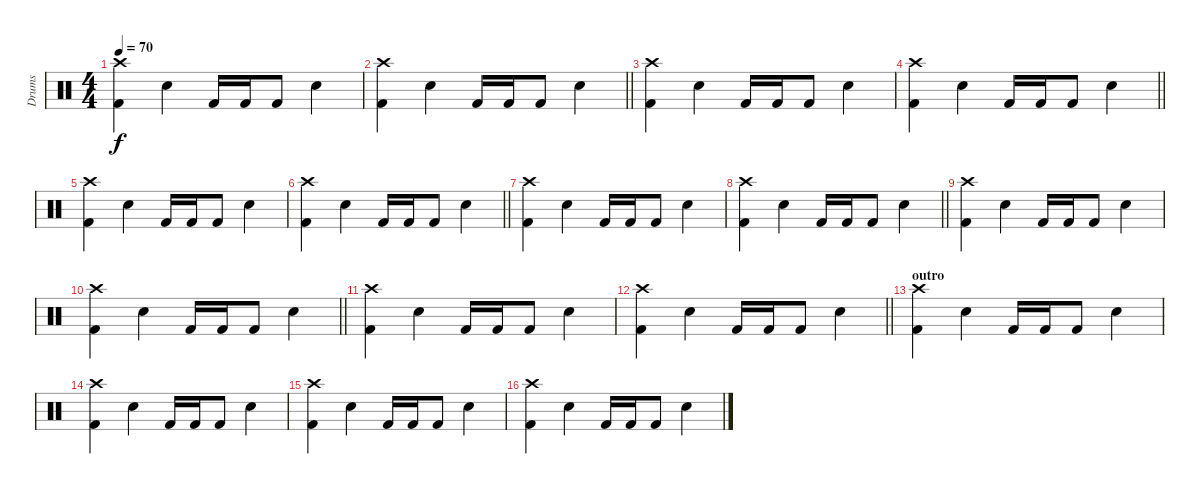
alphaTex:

\track ("Drums" "Drums") {instrument percussion}
\staff {score}
\articulation defaults
\ts (4 4)
\tempo 70
\clef neutral
\ks c
("Kick (hit) 2" "Crash high (hit)").4{dy f} "Electric Snare (hit)".4 "Kick (hit) 2".16 "Kick (hit) 2".16 "Kick (hit) 2".8 "Electric Snare (hit)".4 |
\barLineRight lightlight
("Kick (hit) 2" "Crash high (hit)").4 "Electric Snare (hit)".4 "Kick (hit) 2".16 "Kick (hit) 2".16 "Kick (hit) 2".8 "Electric Snare (hit)".4 |
("Kick (hit) 2" "Crash high (hit)").4 "Electric Snare (hit)".4 "Kick (hit) 2".16 "Kick (hit) 2".16 "Kick (hit) 2".8 "Electric Snare (hit)".4 |
\barLineRight lightlight
("Kick (hit) 2" "Crash high (hit)").4 "Electric Snare (hit)".4 "Kick (hit) 2".16 "Kick (hit) 2".16 "Kick (hit) 2".8 "Electric Snare (hit)".4 |
("Kick (hit) 2" "Crash high (hit)").4 "Electric Snare (hit)".4 "Kick (hit) 2".16 "Kick (hit) 2".16 "Kick (hit) 2".8 "Electric Snare (hit)".4 |
\barLineRight lightlight
("Kick (hit) 2" "Crash high (hit)").4 "Electric Snare (hit)".4 "Kick (hit) 2".16 "Kick (hit) 2".16 "Kick (hit) 2".8 "Electric Snare (hit)".4 |
("Kick (hit) 2" "Crash high (hit)").4 "Electric Snare (hit)".4 "Kick (hit) 2".16 "Kick (hit) 2".16 "Kick (hit) 2".8 "Electric Snare (hit)".4 |
\barLineRight lightlight
("Kick (hit) 2" "Crash high (hit)").4 "Electric Snare (hit)".4 "Kick (hit) 2".16 "Kick (hit) 2".16 "Kick (hit) 2".8 "Electric Snare (hit)".4 |
("Kick (hit) 2" "Crash high (hit)").4 "Electric Snare (hit)".4 "Kick (hit) 2".16 "Kick (hit) 2".16 "Kick (hit) 2".8 "Electric Snare (hit)".4 |
\barLineRight lightlight
("Kick (hit) 2" "Crash high (hit)").4 "Electric Snare (hit)".4 "Kick (hit) 2".16 "Kick (hit) 2".16 "Kick (hit) 2".8 "Electric Snare (hit)".4 |
("Kick (hit) 2" "Crash high (hit)").4 "Electric Snare (hit)".4 "Kick (hit) 2".16 "Kick (hit) 2".16 "Kick (hit) 2".8 "Electric Snare (hit)".4 |
\barLineRight lightlight
("Kick (hit) 2" "Crash high (hit)").4 "Electric Snare (hit)".4 "Kick (hit) 2".16 "Kick (hit) 2".16 "Kick (hit) 2".8 "Electric Snare (hit)".4 |
\section ("" "outro")
("Kick (hit) 2" "Crash high (hit)").4 "Electric Snare (hit)".4 "Kick (hit) 2".16 "Kick (hit) 2".16 "Kick (hit) 2".8 "Electric Snare (hit)".4 |
("Kick (hit) 2" "Crash high (hit)").4 "Electric Snare (hit)".4 "Kick (hit) 2".16 "Kick (hit) 2".16 "Kick (hit) 2".8 "Electric Snare (hit)".4 |
("Kick (hit) 2" "Crash high (hit)").4 "Electric Snare (hit)".4 "Kick (hit) 2".16 "Kick (hit) 2".16 "Kick (hit) 2".8 "Electric Snare (hit)".4 |
("Kick (hit) 2" "Crash high (hit)").4 "Electric Snare (hit)".4 "Kick (hit) 2".16 "Kick (hit) 2".16 "Kick (hit) 2".8 "Electric Snare (hit)".4
